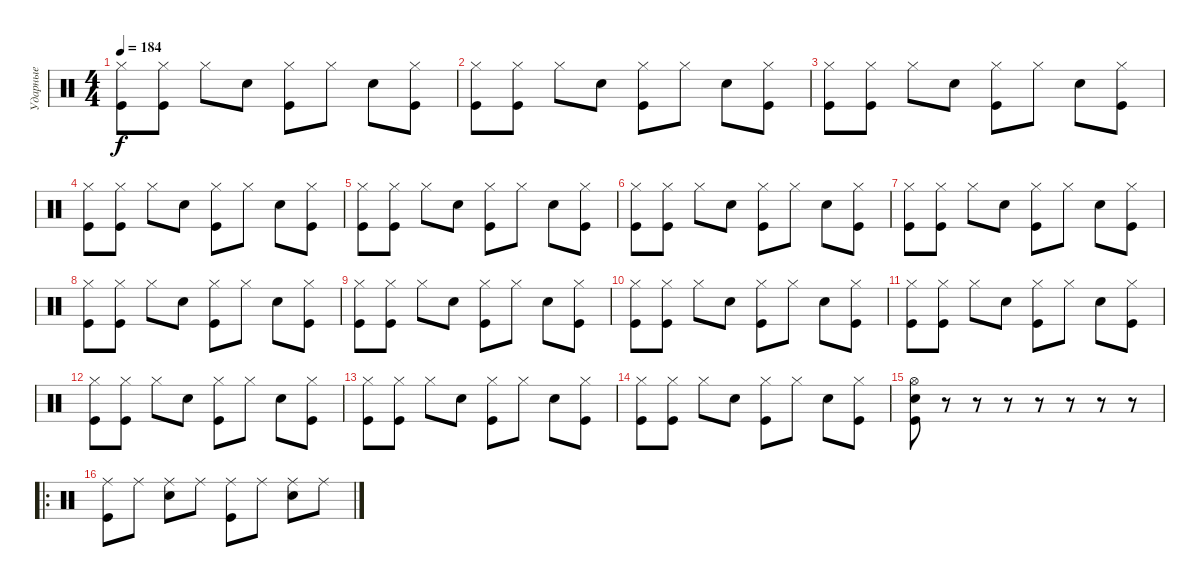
\track ("Ударные" "Ударные") {instrument percussion}
\staff {score}
\articulation defaults
\ts (4 4)
\tempo 184
\clef neutral
\ks c
("Hi-Hat (closed)" "Kick (hit)").8{dy f} ("Hi-Hat (closed)" "Kick (hit)").8 "Hi-Hat (closed)".8 "Electric Snare (hit)".8 ("Hi-Hat (closed)" "Kick (hit)").8 "Hi-Hat (closed)".8 "Electric Snare (hit)".8 ("Hi-Hat (closed)" "Kick (hit)").8 |
("Hi-Hat (closed)" "Kick (hit)").8 ("Hi-Hat (closed)" "Kick (hit)").8 "Hi-Hat (closed)".8 "Electric Snare (hit)".8 ("Hi-Hat (closed)" "Kick (hit)").8 "Hi-Hat (closed)".8 "Electric Snare (hit)".8 ("Hi-Hat (closed)" "Kick (hit)").8 |
("Hi-Hat (closed)" "Kick (hit)").8 ("Hi-Hat (closed)" "Kick (hit)").8 "Hi-Hat (closed)".8 "Electric Snare (hit)".8 ("Hi-Hat (closed)" "Kick (hit)").8 "Hi-Hat (closed)".8 "Electric Snare (hit)".8 ("Hi-Hat (closed)" "Kick (hit)").8 |
("Hi-Hat (closed)" "Kick (hit)").8 ("Hi-Hat (closed)" "Kick (hit)").8 "Hi-Hat (closed)".8 "Electric Snare (hit)".8 ("Hi-Hat (closed)" "Kick (hit)").8 "Hi-Hat (closed)".8 "Electric Snare (hit)".8 ("Hi-Hat (closed)" "Kick (hit)").8 |
("Hi-Hat (closed)" "Kick (hit)").8 ("Hi-Hat (closed)" "Kick (hit)").8 "Hi-Hat (closed)".8 "Electric Snare (hit)".8 ("Hi-Hat (closed)" "Kick (hit)").8 "Hi-Hat (closed)".8 "Electric Snare (hit)".8 ("Hi-Hat (closed)" "Kick (hit)").8 |
("Hi-Hat (closed)" "Kick (hit)").8 ("Hi-Hat (closed)" "Kick (hit)").8 "Hi-Hat (closed)".8 "Electric Snare (hit)".8 ("Hi-Hat (closed)" "Kick (hit)").8 "Hi-Hat (closed)".8 "Electric Snare (hit)".8 ("Hi-Hat (closed)" "Kick (hit)").8 |
("Hi-Hat (closed)" "Kick (hit)").8 ("Hi-Hat (closed)" "Kick (hit)").8 "Hi-Hat (closed)".8 "Electric Snare (hit)".8 ("Hi-Hat (closed)" "Kick (hit)").8 "Hi-Hat (closed)".8 "Electric Snare (hit)".8 ("Hi-Hat (closed)" "Kick (hit)").8 |
("Hi-Hat (closed)" "Kick (hit)").8 ("Hi-Hat (closed)" "Kick (hit)").8 "Hi-Hat (closed)".8 "Electric Snare (hit)".8 ("Hi-Hat (closed)" "Kick (hit)").8 "Hi-Hat (closed)".8 "Electric Snare (hit)".8 ("Hi-Hat (closed)" "Kick (hit)").8 |
("Hi-Hat (closed)" "Kick (hit)").8 ("Hi-Hat (closed)" "Kick (hit)").8 "Hi-Hat (closed)".8 "Electric Snare (hit)".8 ("Hi-Hat (closed)" "Kick (hit)").8 "Hi-Hat (closed)".8 "Electric Snare (hit)".8 ("Hi-Hat (closed)" "Kick (hit)").8 |
("Hi-Hat (closed)" "Kick (hit)").8 ("Hi-Hat (closed)" "Kick (hit)").8 "Hi-Hat (closed)".8 "Electric Snare (hit)".8 ("Hi-Hat (closed)" "Kick (hit)").8 "Hi-Hat (closed)".8 "Electric Snare (hit)".8 ("Hi-Hat (closed)" "Kick (hit)").8 |
("Hi-Hat (closed)" "Kick (hit)").8 ("Hi-Hat (closed)" "Kick (hit)").8 "Hi-Hat (closed)".8 "Electric Snare (hit)".8 ("Hi-Hat (closed)" "Kick (hit)").8 "Hi-Hat (closed)".8 "Electric Snare (hit)".8 ("Hi-Hat (closed)" "Kick (hit)").8 |
("Hi-Hat (closed)" "Kick (hit)").8 ("Hi-Hat (closed)" "Kick (hit)").8 "Hi-Hat (closed)".8 "Electric Snare (hit)".8 ("Hi-Hat (closed)" "Kick (hit)").8 "Hi-Hat (closed)".8 "Electric Snare (hit)".8 ("Hi-Hat (closed)" "Kick (hit)").8 |
("Hi-Hat (closed)" "Kick (hit)").8 ("Hi-Hat (closed)" "Kick (hit)").8 "Hi-Hat (closed)".8 "Electric Snare (hit)".8 ("Hi-Hat (closed)" "Kick (hit)").8 "Hi-Hat (closed)".8 "Electric Snare (hit)".8 ("Hi-Hat (closed)" "Kick (hit)").8 |
("Hi-Hat (closed)" "Kick (hit)").8 ("Hi-Hat (closed)" "Kick (hit)").8 "Hi-Hat (closed)".8 "Electric Snare (hit)".8 ("Hi-Hat (closed)" "Kick (hit)").8 "Hi-Hat (closed)".8 "Electric Snare (hit)".8 ("Hi-Hat (closed)" "Kick (hit)").8 |
("Hi-Hat (open)" "Electric Snare (hit)" "Kick (hit)").8 r.8 r.8 r.8 r.8 r.8 r.8 r.8 |
\ro
("Ride (middle)" "Kick (hit)").8 "Ride (middle)".8 ("Ride (middle)" "Electric Snare (hit)").8 "Ride (middle)".8 ("Ride (middle)" "Kick (hit)").8 "Ride (middle)".8 ("Ride (middle)" "Electric Snare (hit)").8 "Ride (middle)".8
